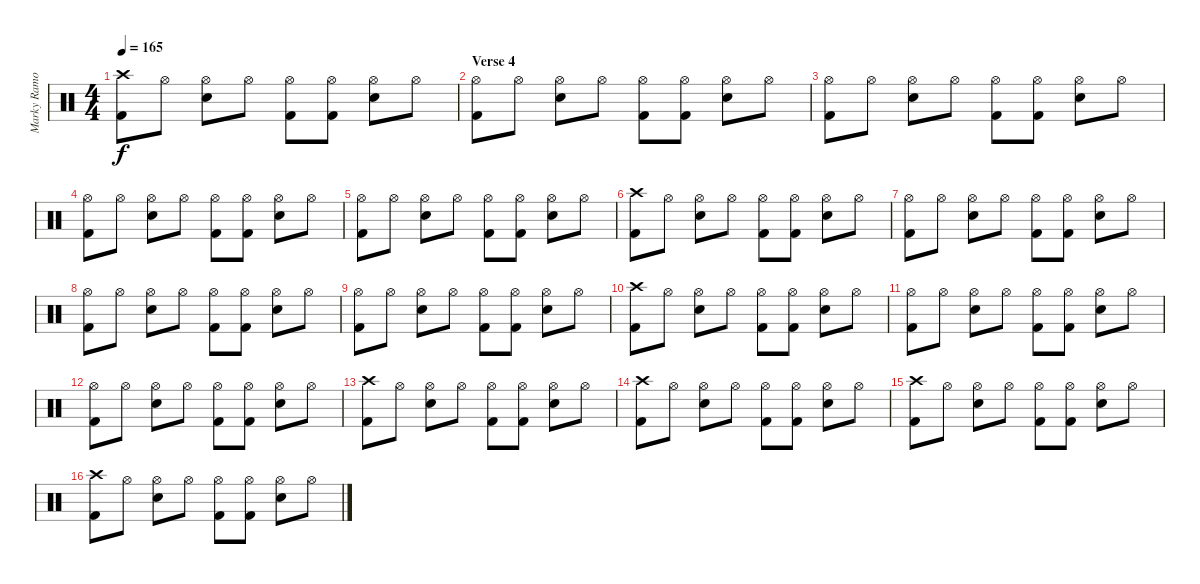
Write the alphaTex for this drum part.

\track ("Marky Ramone" "Marky Ramo") {instrument percussion}
\staff {score}
\articulation defaults
\ts (4 4)
\tempo 165
\clef neutral
\ks c
("Crash high (hit)" "Kick (hit) 2").8{dy f} "Hi-Hat (open)".8 ("Hi-Hat (open)" "Snare (hit) 2").8 "Hi-Hat (open)".8 ("Hi-Hat (open)" "Kick (hit) 2").8 ("Hi-Hat (open)" "Kick (hit) 2").8 ("Hi-Hat (open)" "Snare (hit) 2").8 "Hi-Hat (open)".8 |
\section ("" "Verse 4")
("Hi-Hat (open)" "Kick (hit) 2").8 "Hi-Hat (open)".8 ("Hi-Hat (open)" "Snare (hit) 2").8 "Hi-Hat (open)".8 ("Hi-Hat (open)" "Kick (hit) 2").8 ("Hi-Hat (open)" "Kick (hit) 2").8 ("Hi-Hat (open)" "Snare (hit) 2").8 "Hi-Hat (open)".8 |
("Hi-Hat (open)" "Kick (hit) 2").8 "Hi-Hat (open)".8 ("Hi-Hat (open)" "Snare (hit) 2").8 "Hi-Hat (open)".8 ("Hi-Hat (open)" "Kick (hit) 2").8 ("Hi-Hat (open)" "Kick (hit) 2").8 ("Hi-Hat (open)" "Snare (hit) 2").8 "Hi-Hat (open)".8 |
("Hi-Hat (open)" "Kick (hit) 2").8 "Hi-Hat (open)".8 ("Hi-Hat (open)" "Snare (hit) 2").8 "Hi-Hat (open)".8 ("Hi-Hat (open)" "Kick (hit) 2").8 ("Hi-Hat (open)" "Kick (hit) 2").8 ("Hi-Hat (open)" "Snare (hit) 2").8 "Hi-Hat (open)".8 |
("Hi-Hat (open)" "Kick (hit) 2").8 "Hi-Hat (open)".8 ("Hi-Hat (open)" "Snare (hit) 2").8 "Hi-Hat (open)".8 ("Hi-Hat (open)" "Kick (hit) 2").8 ("Hi-Hat (open)" "Kick (hit) 2").8 ("Hi-Hat (open)" "Snare (hit) 2").8 "Hi-Hat (open)".8 |
("Crash high (hit)" "Kick (hit) 2").8 "Hi-Hat (open)".8 ("Hi-Hat (open)" "Snare (hit) 2").8 "Hi-Hat (open)".8 ("Hi-Hat (open)" "Kick (hit) 2").8 ("Hi-Hat (open)" "Kick (hit) 2").8 ("Hi-Hat (open)" "Snare (hit) 2").8 "Hi-Hat (open)".8 |
("Hi-Hat (open)" "Kick (hit) 2").8 "Hi-Hat (open)".8 ("Hi-Hat (open)" "Snare (hit) 2").8 "Hi-Hat (open)".8 ("Hi-Hat (open)" "Kick (hit) 2").8 ("Hi-Hat (open)" "Kick (hit) 2").8 ("Hi-Hat (open)" "Snare (hit) 2").8 "Hi-Hat (open)".8 |
("Hi-Hat (open)" "Kick (hit) 2").8 "Hi-Hat (open)".8 ("Hi-Hat (open)" "Snare (hit) 2").8 "Hi-Hat (open)".8 ("Hi-Hat (open)" "Kick (hit) 2").8 ("Hi-Hat (open)" "Kick (hit) 2").8 ("Hi-Hat (open)" "Snare (hit) 2").8 "Hi-Hat (open)".8 |
("Hi-Hat (open)" "Kick (hit) 2").8 "Hi-Hat (open)".8 ("Hi-Hat (open)" "Snare (hit) 2").8 "Hi-Hat (open)".8 ("Hi-Hat (open)" "Kick (hit) 2").8 ("Hi-Hat (open)" "Kick (hit) 2").8 ("Hi-Hat (open)" "Snare (hit) 2").8 "Hi-Hat (open)".8 |
("Crash high (hit)" "Kick (hit) 2").8 "Hi-Hat (open)".8 ("Hi-Hat (open)" "Snare (hit) 2").8 "Hi-Hat (open)".8 ("Hi-Hat (open)" "Kick (hit) 2").8 ("Hi-Hat (open)" "Kick (hit) 2").8 ("Hi-Hat (open)" "Snare (hit) 2").8 "Hi-Hat (open)".8 |
("Hi-Hat (open)" "Kick (hit) 2").8 "Hi-Hat (open)".8 ("Hi-Hat (open)" "Snare (hit) 2").8 "Hi-Hat (open)".8 ("Hi-Hat (open)" "Kick (hit) 2").8 ("Hi-Hat (open)" "Kick (hit) 2").8 ("Hi-Hat (open)" "Snare (hit) 2").8 "Hi-Hat (open)".8 |
("Hi-Hat (open)" "Kick (hit) 2").8 "Hi-Hat (open)".8 ("Hi-Hat (open)" "Snare (hit) 2").8 "Hi-Hat (open)".8 ("Hi-Hat (open)" "Kick (hit) 2").8 ("Hi-Hat (open)" "Kick (hit) 2").8 ("Hi-Hat (open)" "Snare (hit) 2").8 "Hi-Hat (open)".8 |
("Crash high (hit)" "Kick (hit) 2").8 "Hi-Hat (open)".8 ("Hi-Hat (open)" "Snare (hit) 2").8 "Hi-Hat (open)".8 ("Hi-Hat (open)" "Kick (hit) 2").8 ("Hi-Hat (open)" "Kick (hit) 2").8 ("Hi-Hat (open)" "Snare (hit) 2").8 "Hi-Hat (open)".8 |
("Crash high (hit)" "Kick (hit) 2").8 "Hi-Hat (open)".8 ("Hi-Hat (open)" "Snare (hit) 2").8 "Hi-Hat (open)".8 ("Hi-Hat (open)" "Kick (hit) 2").8 ("Hi-Hat (open)" "Kick (hit) 2").8 ("Hi-Hat (open)" "Snare (hit) 2").8 "Hi-Hat (open)".8 |
("Crash high (hit)" "Kick (hit) 2").8 "Hi-Hat (open)".8 ("Hi-Hat (open)" "Snare (hit) 2").8 "Hi-Hat (open)".8 ("Hi-Hat (open)" "Kick (hit) 2").8 ("Hi-Hat (open)" "Kick (hit) 2").8 ("Hi-Hat (open)" "Snare (hit) 2").8 "Hi-Hat (open)".8 |
("Crash high (hit)" "Kick (hit) 2").8 "Hi-Hat (open)".8 ("Hi-Hat (open)" "Snare (hit) 2").8 "Hi-Hat (open)".8 ("Hi-Hat (open)" "Kick (hit) 2").8 ("Hi-Hat (open)" "Kick (hit) 2").8 ("Hi-Hat (open)" "Snare (hit) 2").8 "Hi-Hat (open)".8
